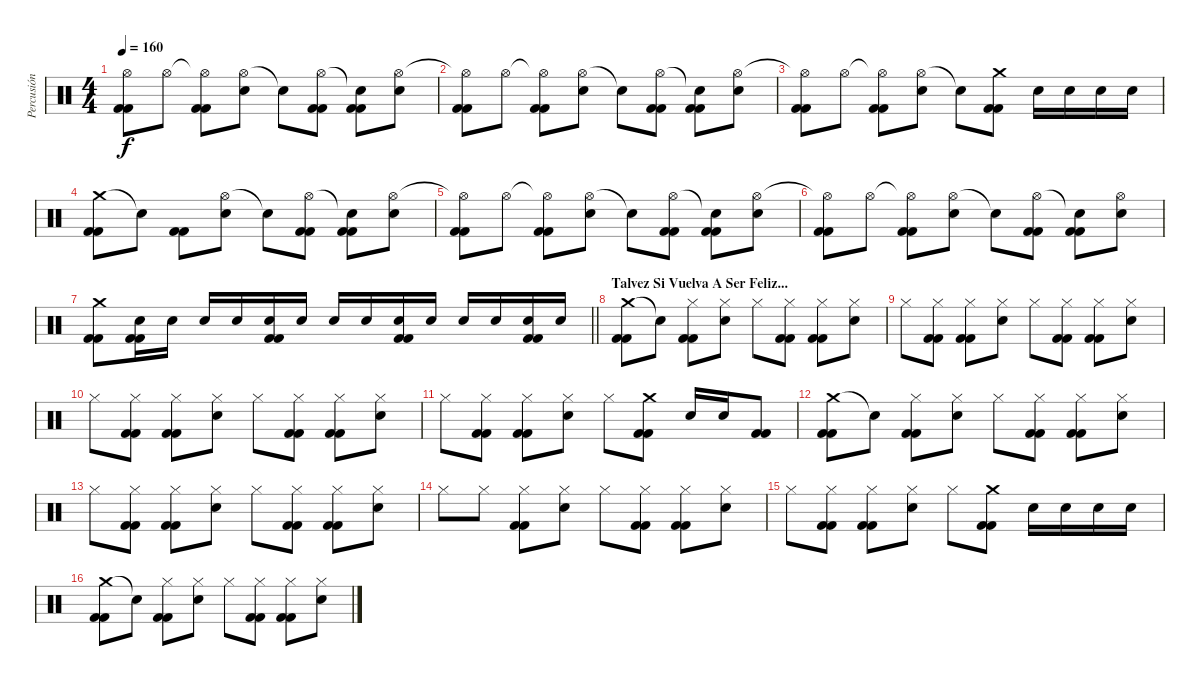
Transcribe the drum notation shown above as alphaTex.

\track ("Percusión" "Percusión") {instrument percussion}
\staff {score}
\articulation defaults
\ts (4 4)
\tempo 160
\clef neutral
\ks c
("Hi-Hat (open)"{t} "Kick (hit) 2" "Kick (hit) 2").8{dy f} "Hi-Hat (open)".8 ("Hi-Hat (open)"{t} "Kick (hit) 2" "Kick (hit) 2").8 ("Hi-Hat (open)" "Electric Snare (hit)").8 "Snare (hit)"{t}.8 ("Hi-Hat (open)" "Kick (hit) 2" "Kick (hit) 2").8 ("Snare (hit)"{t} "Kick (hit) 2" "Kick (hit) 2").8 ("Hi-Hat (open)" "Electric Snare (hit)").8 |
("Hi-Hat (open)"{t} "Kick (hit) 2" "Kick (hit) 2").8 "Hi-Hat (open)".8 ("Hi-Hat (open)"{t} "Kick (hit) 2" "Kick (hit) 2").8 ("Hi-Hat (open)" "Electric Snare (hit)").8 "Snare (hit)"{t}.8 ("Hi-Hat (open)" "Kick (hit) 2" "Kick (hit) 2").8 ("Snare (hit)"{t} "Kick (hit) 2" "Kick (hit) 2").8 ("Hi-Hat (open)" "Electric Snare (hit)").8 |
("Hi-Hat (open)"{t} "Kick (hit) 2" "Kick (hit) 2").8 "Hi-Hat (open)".8 ("Hi-Hat (open)"{t} "Kick (hit) 2" "Kick (hit) 2").8 ("Hi-Hat (open)" "Electric Snare (hit)").8 "Snare (hit)"{t}.8 ("Crash medium (hit)" "Kick (hit) 2" "Kick (hit) 2").8 "Electric Snare (hit)".16 "Electric Snare (hit)".16 "Electric Snare (hit)".16 "Electric Snare (hit)".16 |
("Crash medium (hit)" "Kick (hit) 2" "Kick (hit) 2").8 "Snare (hit)"{t}.8 ("Kick (hit) 2" "Kick (hit) 2").8 ("Hi-Hat (open)" "Electric Snare (hit)").8 "Snare (hit)"{t}.8 ("Hi-Hat (open)" "Kick (hit) 2" "Kick (hit) 2").8 ("Snare (hit)"{t} "Kick (hit) 2" "Kick (hit) 2").8 ("Hi-Hat (open)" "Electric Snare (hit)").8 |
("Hi-Hat (open)"{t} "Kick (hit) 2" "Kick (hit) 2").8 "Hi-Hat (open)".8 ("Hi-Hat (open)"{t} "Kick (hit) 2" "Kick (hit) 2").8 ("Hi-Hat (open)" "Electric Snare (hit)").8 "Snare (hit)"{t}.8 ("Hi-Hat (open)" "Kick (hit) 2" "Kick (hit) 2").8 ("Snare (hit)"{t} "Kick (hit) 2" "Kick (hit) 2").8 ("Hi-Hat (open)" "Electric Snare (hit)").8 |
("Hi-Hat (open)"{t} "Kick (hit) 2" "Kick (hit) 2").8 "Hi-Hat (open)".8 ("Hi-Hat (open)"{t} "Kick (hit) 2" "Kick (hit) 2").8 ("Hi-Hat (open)" "Electric Snare (hit)").8 "Snare (hit)"{t}.8 ("Hi-Hat (open)" "Kick (hit) 2" "Kick (hit) 2").8 ("Snare (hit)"{t} "Kick (hit) 2" "Kick (hit) 2").8 ("Hi-Hat (open)" "Electric Snare (hit)").8 |
\barLineRight lightlight
("Crash medium (hit)" "Kick (hit) 2" "Kick (hit) 2").8 ("Snare (hit) 2" "Kick (hit) 2" "Kick (hit) 2").16 "Snare (hit) 2".16 "Snare (hit) 2".16 "Snare (hit) 2".16 ("Snare (hit) 2" "Kick (hit) 2" "Kick (hit) 2").16 "Snare (hit) 2".16 "Snare (hit) 2".16 "Snare (hit) 2".16 ("Snare (hit) 2" "Kick (hit) 2" "Kick (hit) 2").16 "Snare (hit) 2".16 "Snare (hit) 2".16 "Snare (hit) 2".16 ("Snare (hit) 2" "Kick (hit) 2" "Kick (hit) 2").16 "Snare (hit) 2".16 |
\section ("" "Talvez Si Vuelva A Ser Feliz...")
("Crash medium (hit)" "Kick (hit) 2" "Kick (hit) 2").8 "Snare (hit)"{t}.8 ("Hi-Hat (closed)" "Kick (hit) 2" "Kick (hit) 2").8 ("Hi-Hat (closed)" "Electric Snare (hit)").8 "Hi-Hat (closed)".8 ("Hi-Hat (closed)" "Kick (hit) 2" "Kick (hit) 2").8 ("Hi-Hat (closed)" "Kick (hit) 2" "Kick (hit) 2").8 ("Hi-Hat (closed)" "Electric Snare (hit)").8 |
"Hi-Hat (closed)".8 ("Hi-Hat (closed)" "Kick (hit) 2" "Kick (hit) 2").8 ("Hi-Hat (closed)" "Kick (hit) 2" "Kick (hit) 2").8 ("Hi-Hat (closed)" "Electric Snare (hit)").8 "Hi-Hat (closed)".8 ("Hi-Hat (closed)" "Kick (hit) 2" "Kick (hit) 2").8 ("Hi-Hat (closed)" "Kick (hit) 2" "Kick (hit) 2").8 ("Hi-Hat (closed)" "Electric Snare (hit)").8 |
"Hi-Hat (closed)".8 ("Hi-Hat (closed)" "Kick (hit) 2" "Kick (hit) 2").8 ("Hi-Hat (closed)" "Kick (hit) 2" "Kick (hit) 2").8 ("Hi-Hat (closed)" "Electric Snare (hit)").8 "Hi-Hat (closed)".8 ("Hi-Hat (closed)" "Kick (hit) 2" "Kick (hit) 2").8 ("Hi-Hat (closed)" "Kick (hit) 2" "Kick (hit) 2").8 ("Hi-Hat (closed)" "Electric Snare (hit)").8 |
"Hi-Hat (closed)".8 ("Hi-Hat (closed)" "Kick (hit) 2" "Kick (hit) 2").8 ("Hi-Hat (closed)" "Kick (hit) 2" "Kick (hit) 2").8 ("Hi-Hat (closed)" "Electric Snare (hit)").8 "Hi-Hat (closed)".8 ("Crash medium (hit)" "Kick (hit) 2" "Kick (hit) 2").8 "Electric Snare (hit)".16 "Electric Snare (hit)".16 ("Kick (hit) 2" "Kick (hit) 2").8 |
("Crash medium (hit)" "Kick (hit) 2" "Kick (hit) 2").8 "Snare (hit)"{t}.8 ("Hi-Hat (closed)" "Kick (hit) 2" "Kick (hit) 2").8 ("Hi-Hat (closed)" "Electric Snare (hit)").8 "Hi-Hat (closed)".8 ("Hi-Hat (closed)" "Kick (hit) 2" "Kick (hit) 2").8 ("Hi-Hat (closed)" "Kick (hit) 2" "Kick (hit) 2").8 ("Hi-Hat (closed)" "Electric Snare (hit)").8 |
"Hi-Hat (closed)".8 ("Hi-Hat (closed)" "Kick (hit) 2" "Kick (hit) 2").8 ("Hi-Hat (closed)" "Kick (hit) 2" "Kick (hit) 2").8 ("Hi-Hat (closed)" "Electric Snare (hit)").8 "Hi-Hat (closed)".8 ("Hi-Hat (closed)" "Kick (hit) 2" "Kick (hit) 2").8 ("Hi-Hat (closed)" "Kick (hit) 2" "Kick (hit) 2").8 ("Hi-Hat (closed)" "Electric Snare (hit)").8 |
"Hi-Hat (closed)".8 "Hi-Hat (closed)".8 ("Hi-Hat (closed)" "Kick (hit) 2" "Kick (hit) 2").8 ("Hi-Hat (closed)" "Electric Snare (hit)").8 "Hi-Hat (closed)".8 ("Hi-Hat (closed)" "Kick (hit) 2" "Kick (hit) 2").8 ("Hi-Hat (closed)" "Kick (hit) 2" "Kick (hit) 2").8 ("Hi-Hat (closed)" "Electric Snare (hit)").8 |
"Hi-Hat (closed)".8 ("Hi-Hat (closed)" "Kick (hit) 2" "Kick (hit) 2").8 ("Hi-Hat (closed)" "Kick (hit) 2" "Kick (hit) 2").8 ("Hi-Hat (closed)" "Electric Snare (hit)").8 "Hi-Hat (closed)".8 ("Crash medium (hit)" "Kick (hit) 2" "Kick (hit) 2").8 "Electric Snare (hit)".16 "Electric Snare (hit)".16 "Electric Snare (hit)".16 "Electric Snare (hit)".16 |
("Crash medium (hit)" "Kick (hit) 2" "Kick (hit) 2").8 "Snare (hit)"{t}.8 ("Hi-Hat (closed)" "Kick (hit) 2" "Kick (hit) 2").8 ("Hi-Hat (closed)" "Electric Snare (hit)").8 "Hi-Hat (closed)".8 ("Hi-Hat (closed)" "Kick (hit) 2" "Kick (hit) 2").8 ("Hi-Hat (closed)" "Kick (hit) 2" "Kick (hit) 2").8 ("Hi-Hat (closed)" "Electric Snare (hit)").8
